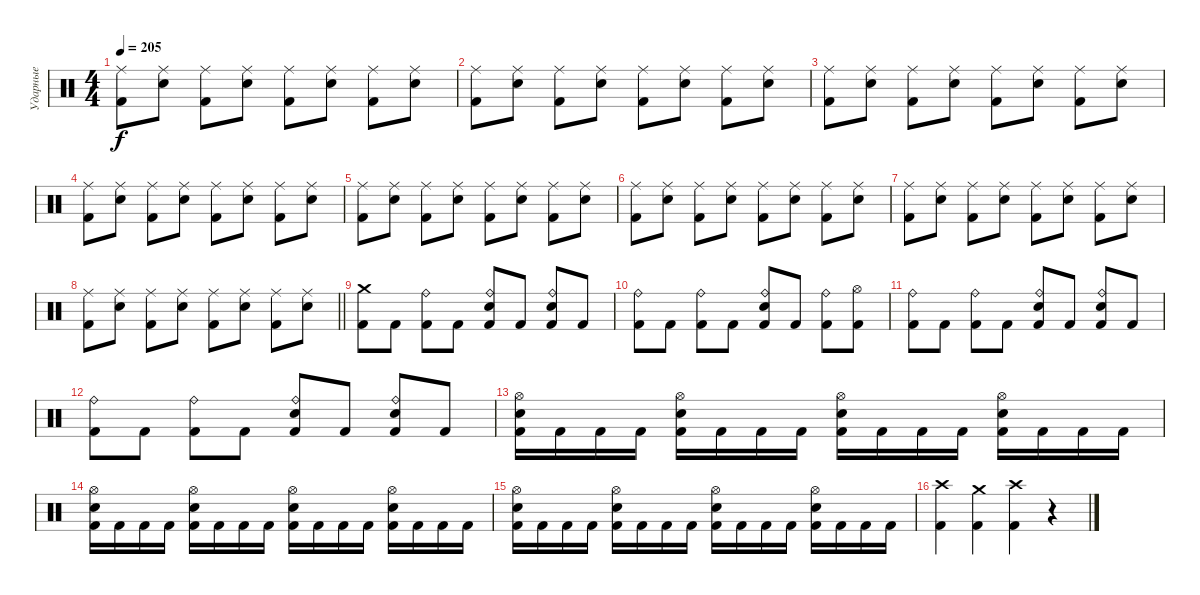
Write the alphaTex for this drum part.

\track ("Ударные" "Ударные") {instrument percussion}
\staff {score}
\articulation defaults
\ts (4 4)
\tempo 205
\clef neutral
\ks c
("Ride (middle)" "Kick (hit) 2").8{dy f} ("Ride (middle)" "Snare (hit) 2").8 ("Ride (middle)" "Kick (hit) 2").8 ("Ride (middle)" "Snare (hit) 2").8 ("Ride (middle)" "Kick (hit) 2").8 ("Ride (middle)" "Snare (hit) 2").8 ("Ride (middle)" "Kick (hit) 2").8 ("Ride (middle)" "Snare (hit) 2").8 |
("Ride (middle)" "Kick (hit) 2").8 ("Ride (middle)" "Snare (hit) 2").8 ("Ride (middle)" "Kick (hit) 2").8 ("Ride (middle)" "Snare (hit) 2").8 ("Ride (middle)" "Kick (hit) 2").8 ("Ride (middle)" "Snare (hit) 2").8 ("Ride (middle)" "Kick (hit) 2").8 ("Ride (middle)" "Snare (hit) 2").8 |
("Ride (middle)" "Kick (hit) 2").8 ("Ride (middle)" "Snare (hit) 2").8 ("Ride (middle)" "Kick (hit) 2").8 ("Ride (middle)" "Snare (hit) 2").8 ("Ride (middle)" "Kick (hit) 2").8 ("Ride (middle)" "Snare (hit) 2").8 ("Ride (middle)" "Kick (hit) 2").8 ("Ride (middle)" "Snare (hit) 2").8 |
("Ride (middle)" "Kick (hit) 2").8 ("Ride (middle)" "Snare (hit) 2").8 ("Ride (middle)" "Kick (hit) 2").8 ("Ride (middle)" "Snare (hit) 2").8 ("Ride (middle)" "Kick (hit) 2").8 ("Ride (middle)" "Snare (hit) 2").8 ("Ride (middle)" "Kick (hit) 2").8 ("Ride (middle)" "Snare (hit) 2").8 |
("Ride (middle)" "Kick (hit) 2").8 ("Ride (middle)" "Snare (hit) 2").8 ("Ride (middle)" "Kick (hit) 2").8 ("Ride (middle)" "Snare (hit) 2").8 ("Ride (middle)" "Kick (hit) 2").8 ("Ride (middle)" "Snare (hit) 2").8 ("Ride (middle)" "Kick (hit) 2").8 ("Ride (middle)" "Snare (hit) 2").8 |
("Ride (middle)" "Kick (hit) 2").8 ("Ride (middle)" "Snare (hit) 2").8 ("Ride (middle)" "Kick (hit) 2").8 ("Ride (middle)" "Snare (hit) 2").8 ("Ride (middle)" "Kick (hit) 2").8 ("Ride (middle)" "Snare (hit) 2").8 ("Ride (middle)" "Kick (hit) 2").8 ("Ride (middle)" "Snare (hit) 2").8 |
("Ride (middle)" "Kick (hit) 2").8 ("Ride (middle)" "Snare (hit) 2").8 ("Ride (middle)" "Kick (hit) 2").8 ("Ride (middle)" "Snare (hit) 2").8 ("Ride (middle)" "Kick (hit) 2").8 ("Ride (middle)" "Snare (hit) 2").8 ("Ride (middle)" "Kick (hit) 2").8 ("Ride (middle)" "Snare (hit) 2").8 |
\barLineRight lightlight
("Ride (middle)" "Kick (hit) 2").8 ("Ride (middle)" "Snare (hit) 2").8 ("Ride (middle)" "Kick (hit) 2").8 ("Ride (middle)" "Snare (hit) 2").8 ("Ride (middle)" "Kick (hit) 2").8 ("Ride (middle)" "Snare (hit) 2").8 ("Ride (middle)" "Kick (hit) 2").8 ("Ride (middle)" "Snare (hit) 2").8 |
("Crash medium (hit)" "Kick (hit) 2").8 "Kick (hit) 2".8 ("Ride (bell)" "Kick (hit) 2").8 "Kick (hit) 2".8 ("Ride (bell)" "Electric Snare (hit)" "Kick (hit) 2").8 "Kick (hit) 2".8 ("Ride (bell)" "Electric Snare (hit)" "Kick (hit) 2").8 "Kick (hit) 2".8 |
("Ride (bell)" "Kick (hit) 2").8 "Kick (hit) 2".8 ("Ride (bell)" "Kick (hit) 2").8 "Kick (hit) 2".8 ("Ride (bell)" "Electric Snare (hit)" "Kick (hit) 2").8 "Kick (hit) 2".8 ("Ride (bell)" "Kick (hit) 2").8 ("Hi-Hat (open)" "Kick (hit) 2").8 |
("Ride (bell)" "Kick (hit) 2").8 "Kick (hit) 2".8 ("Ride (bell)" "Kick (hit) 2").8 "Kick (hit) 2".8 ("Ride (bell)" "Electric Snare (hit)" "Kick (hit) 2").8 "Kick (hit) 2".8 ("Ride (bell)" "Electric Snare (hit)" "Kick (hit) 2").8 "Kick (hit) 2".8 |
("Ride (bell)" "Kick (hit) 2").8 "Kick (hit) 2".8 ("Ride (bell)" "Kick (hit) 2").8 "Kick (hit) 2".8 ("Ride (bell)" "Electric Snare (hit)" "Kick (hit) 2").8 "Kick (hit) 2".8 ("Ride (bell)" "Electric Snare (hit)" "Kick (hit) 2").8 "Kick (hit) 2".8 |
("Hi-Hat (open)" "Electric Snare (hit)" "Kick (hit) 2").16 "Kick (hit) 2".16 "Kick (hit) 2".16 "Kick (hit) 2".16 ("Hi-Hat (open)" "Electric Snare (hit)" "Kick (hit) 2").16 "Kick (hit) 2".16 "Kick (hit) 2".16 "Kick (hit) 2".16 ("Hi-Hat (open)" "Electric Snare (hit)" "Kick (hit) 2").16 "Kick (hit) 2".16 "Kick (hit) 2".16 "Kick (hit) 2".16 ("Hi-Hat (open)" "Electric Snare (hit)" "Kick (hit) 2").16 "Kick (hit) 2".16 "Kick (hit) 2".16 "Kick (hit) 2".16 |
("Hi-Hat (open)" "Electric Snare (hit)" "Kick (hit) 2").16 "Kick (hit) 2".16 "Kick (hit) 2".16 "Kick (hit) 2".16 ("Hi-Hat (open)" "Electric Snare (hit)" "Kick (hit) 2").16 "Kick (hit) 2".16 "Kick (hit) 2".16 "Kick (hit) 2".16 ("Hi-Hat (open)" "Electric Snare (hit)" "Kick (hit) 2").16 "Kick (hit) 2".16 "Kick (hit) 2".16 "Kick (hit) 2".16 ("Hi-Hat (open)" "Electric Snare (hit)" "Kick (hit) 2").16 "Kick (hit) 2".16 "Kick (hit) 2".16 "Kick (hit) 2".16 |
("Hi-Hat (open)" "Electric Snare (hit)" "Kick (hit) 2").16 "Kick (hit) 2".16 "Kick (hit) 2".16 "Kick (hit) 2".16 ("Hi-Hat (open)" "Electric Snare (hit)" "Kick (hit) 2").16 "Kick (hit) 2".16 "Kick (hit) 2".16 "Kick (hit) 2".16 ("Hi-Hat (open)" "Electric Snare (hit)" "Kick (hit) 2").16 "Kick (hit) 2".16 "Kick (hit) 2".16 "Kick (hit) 2".16 ("Hi-Hat (open)" "Electric Snare (hit)" "Kick (hit) 2").16 "Kick (hit) 2".16 "Kick (hit) 2".16 "Kick (hit) 2".16 |
("Crash high (hit)" "Kick (hit) 2").4 ("Crash medium (hit)" "Kick (hit) 2").4 ("Crash high (hit)" "Kick (hit) 2").4 r.4
